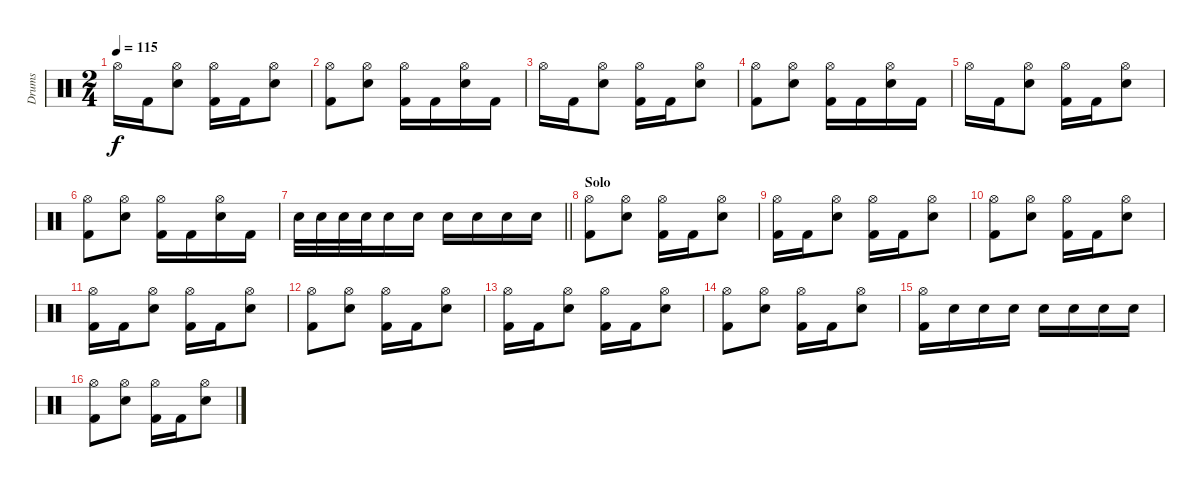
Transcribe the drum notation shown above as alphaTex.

\track ("Drums" "Drums") {instrument percussion}
\staff {score}
\articulation defaults
\ts (2 4)
\tempo 115
\clef neutral
\ks c "Hi-Hat (open)".16{dy f} "Kick (hit) 2".16
("Hi-Hat (open)" "Electric Snare (hit)").8 ("Hi-Hat (open)" "Kick (hit) 2").16 "Kick (hit) 2".16 ("Hi-Hat (open)" "Electric Snare (hit)").8 |
("Hi-Hat (open)" "Kick (hit) 2").8 ("Hi-Hat (open)" "Electric Snare (hit)").8 ("Hi-Hat (open)" "Kick (hit) 2").16 "Kick (hit) 2".16 ("Hi-Hat (open)" "Electric Snare (hit)").16 "Kick (hit) 2".16 |
"Hi-Hat (open)".16 "Kick (hit) 2".16 ("Hi-Hat (open)" "Electric Snare (hit)").8 ("Hi-Hat (open)" "Kick (hit) 2").16 "Kick (hit) 2".16 ("Hi-Hat (open)" "Electric Snare (hit)").8 |
("Hi-Hat (open)" "Kick (hit) 2").8 ("Hi-Hat (open)" "Electric Snare (hit)").8 ("Hi-Hat (open)" "Kick (hit) 2").16 "Kick (hit) 2".16 ("Hi-Hat (open)" "Electric Snare (hit)").16 "Kick (hit) 2".16 |
"Hi-Hat (open)".16 "Kick (hit) 2".16 ("Hi-Hat (open)" "Electric Snare (hit)").8 ("Hi-Hat (open)" "Kick (hit) 2").16 "Kick (hit) 2".16 ("Hi-Hat (open)" "Electric Snare (hit)").8 |
("Hi-Hat (open)" "Kick (hit) 2").8 ("Hi-Hat (open)" "Electric Snare (hit)").8 ("Hi-Hat (open)" "Kick (hit) 2").16 "Kick (hit) 2".16 ("Hi-Hat (open)" "Electric Snare (hit)").16 "Kick (hit) 2".16 |
\barLineRight lightlight "Electric Snare (hit)".32 "Electric Snare (hit)".32 "Electric Snare (hit)".32 "Electric Snare (hit)".32 "Electric Snare (hit)".16 "Electric Snare (hit)".16 "Electric Snare (hit)".16 "Electric Snare (hit)".16 "Electric Snare (hit)".16 "Electric Snare (hit)".16
|
\section ("" "Solo")
("Hi-Hat (open)" "Kick (hit) 2").8 ("Hi-Hat (open)" "Electric Snare (hit)").8 ("Hi-Hat (open)" "Kick (hit) 2").16 "Kick (hit) 2".16 ("Hi-Hat (open)" "Electric Snare (hit)").8 |
("Hi-Hat (open)" "Kick (hit) 2").16 "Kick (hit) 2".16 ("Hi-Hat (open)" "Electric Snare (hit)").8 ("Hi-Hat (open)" "Kick (hit) 2").16 "Kick (hit) 2".16 ("Hi-Hat (open)" "Electric Snare (hit)").8 |
("Hi-Hat (open)" "Kick (hit) 2").8 ("Hi-Hat (open)" "Electric Snare (hit)").8 ("Hi-Hat (open)" "Kick (hit) 2").16 "Kick (hit) 2".16 ("Hi-Hat (open)" "Electric Snare (hit)").8 |
("Hi-Hat (open)" "Kick (hit) 2").16 "Kick (hit) 2".16 ("Hi-Hat (open)" "Electric Snare (hit)").8 ("Hi-Hat (open)" "Kick (hit) 2").16 "Kick (hit) 2".16 ("Hi-Hat (open)" "Electric Snare (hit)").8 |
("Hi-Hat (open)" "Kick (hit) 2").8 ("Hi-Hat (open)" "Electric Snare (hit)").8 ("Hi-Hat (open)" "Kick (hit) 2").16 "Kick (hit) 2".16 ("Hi-Hat (open)" "Electric Snare (hit)").8 |
("Hi-Hat (open)" "Kick (hit) 2").16 "Kick (hit) 2".16 ("Hi-Hat (open)" "Electric Snare (hit)").8 ("Hi-Hat (open)" "Kick (hit) 2").16 "Kick (hit) 2".16 ("Hi-Hat (open)" "Electric Snare (hit)").8 |
("Hi-Hat (open)" "Kick (hit) 2").8 ("Hi-Hat (open)" "Electric Snare (hit)").8 ("Hi-Hat (open)" "Kick (hit) 2").16 "Kick (hit) 2".16 ("Hi-Hat (open)" "Electric Snare (hit)").8 |
("Hi-Hat (open)" "Kick (hit) 2").16 "Electric Snare (hit)".16 "Electric Snare (hit)".16 "Electric Snare (hit)".16 "Electric Snare (hit)".16 "Electric Snare (hit)".16 "Electric Snare (hit)".16 "Electric Snare (hit)".16 |
("Hi-Hat (open)" "Kick (hit) 2").8 ("Hi-Hat (open)" "Electric Snare (hit)").8 ("Hi-Hat (open)" "Kick (hit) 2").16 "Kick (hit) 2".16 ("Hi-Hat (open)" "Electric Snare (hit)").8
